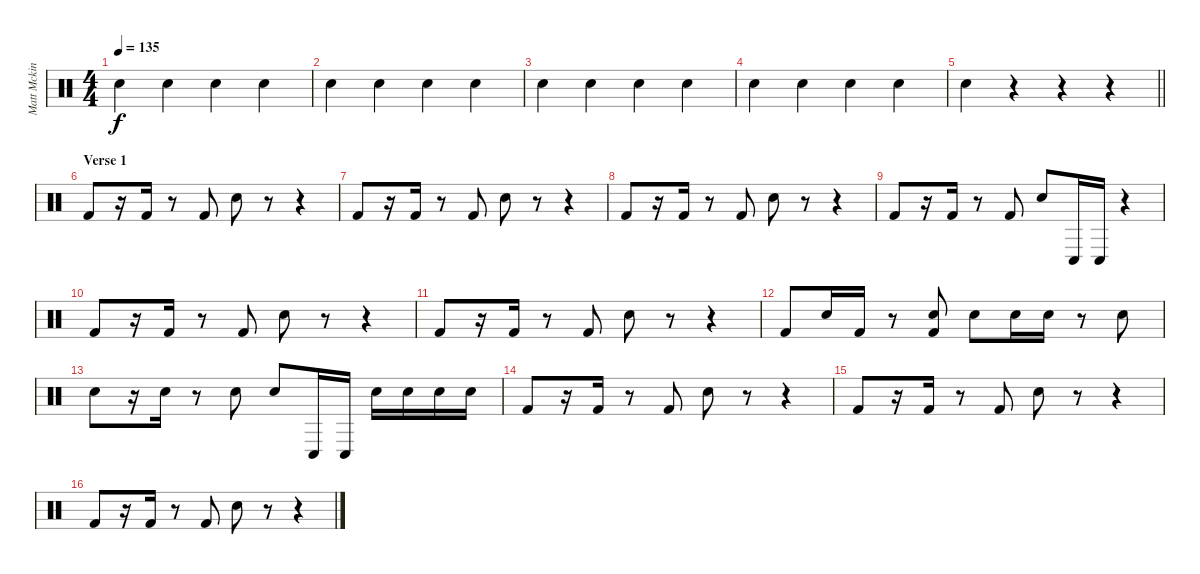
\track ("Matt Mckinley (Drums)" "Matt Mckin") {instrument percussion}
\staff {score}
\articulation defaults
\ts (4 4)
\tempo 135
\clef neutral
\ks c "Electric Snare (hit)".4{dy f} "Electric Snare (hit)".4 "Electric Snare (hit)".4 "Electric Snare (hit)".4
|
"Electric Snare (hit)".4 "Electric Snare (hit)".4 "Electric Snare (hit)".4 "Electric Snare (hit)".4 |
"Electric Snare (hit)".4 "Electric Snare (hit)".4 "Electric Snare (hit)".4 "Electric Snare (hit)".4 |
"Electric Snare (hit)".4 "Electric Snare (hit)".4 "Electric Snare (hit)".4 "Electric Snare (hit)".4 |
\barLineRight lightlight "Electric Snare (hit)".4
r.4 r.4 r.4 |
\section ("" "Verse 1")
"Kick (hit) 2".8 r.16 "Kick (hit) 2".16 r.8 "Kick (hit) 2".8 "Electric Snare (hit)".8 r.8 r.4 |
"Kick (hit) 2".8 r.16 "Kick (hit) 2".16 r.8 "Kick (hit) 2".8 "Electric Snare (hit)".8 r.8 r.4 |
"Kick (hit) 2".8 r.16 "Kick (hit) 2".16 r.8 "Kick (hit) 2".8 "Electric Snare (hit)".8 r.8 r.4 |
"Kick (hit) 2".8 r.16 "Kick (hit) 2".16 r.8 "Kick (hit) 2".8 "Electric Snare (hit)".8 "Conga low (hit)".16 "Conga low (hit)".16 r.4 |
"Kick (hit) 2".8 r.16 "Kick (hit) 2".16 r.8 "Kick (hit) 2".8 "Electric Snare (hit)".8 r.8 r.4 |
"Kick (hit) 2".8 r.16 "Kick (hit) 2".16 r.8 "Kick (hit) 2".8 "Electric Snare (hit)".8 r.8 r.4 |
"Kick (hit) 2".8 "Electric Snare (hit)".16 "Kick (hit) 2".16 r.8 ("Electric Snare (hit)" "Kick (hit) 2").8 "Electric Snare (hit)".8 "Electric Snare (hit)".16 "Electric Snare (hit)".16 r.8 "Electric Snare (hit)".8 |
"Electric Snare (hit)".8 r.16 "Electric Snare (hit)".16 r.8 "Electric Snare (hit)".8 "Electric Snare (hit)".8 "Conga low (hit)".16 "Conga low (hit)".16 "Electric Snare (hit)".16 "Electric Snare (hit)".16 "Electric Snare (hit)".16 "Electric Snare (hit)".16 |
"Kick (hit) 2".8 r.16 "Kick (hit) 2".16 r.8 "Kick (hit) 2".8 "Electric Snare (hit)".8 r.8 r.4 |
"Kick (hit) 2".8 r.16 "Kick (hit) 2".16 r.8 "Kick (hit) 2".8 "Electric Snare (hit)".8 r.8 r.4 |
"Kick (hit) 2".8 r.16 "Kick (hit) 2".16 r.8 "Kick (hit) 2".8 "Electric Snare (hit)".8 r.8 r.4
